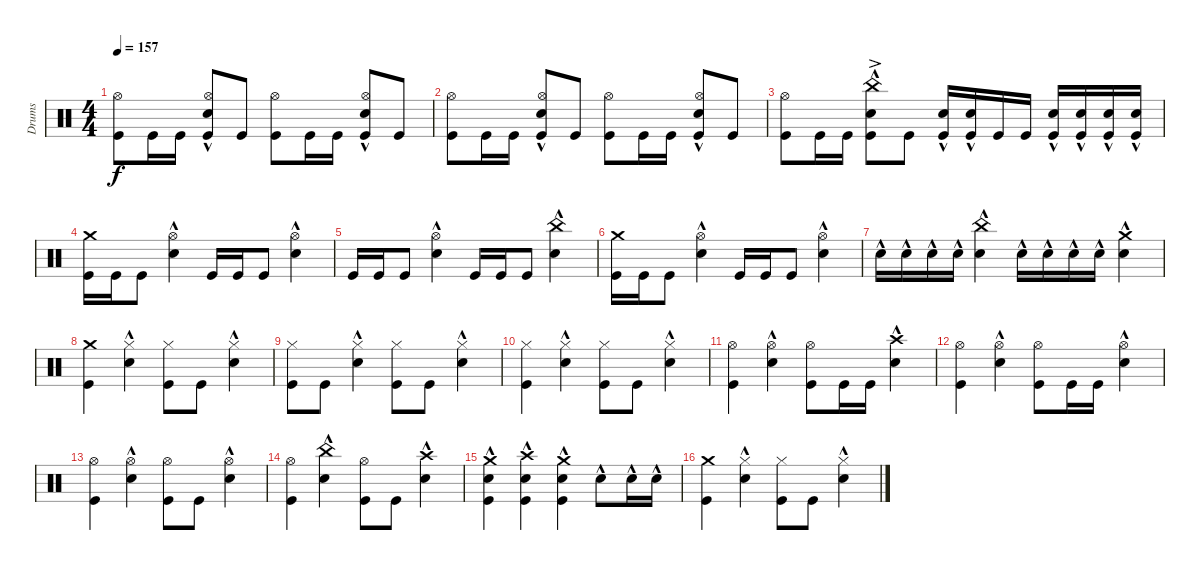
\track ("Drums" "Drums") {solo instrument percussion}
\staff {score}
\articulation defaults
\ts (4 4)
\tempo 157
\clef neutral
\ks c
("Kick (hit)" "Hi-Hat (open)").8{dy f} "Kick (hit)".16 "Kick (hit)".16 ("Snare (hit) 2"{hac} "Hi-Hat (open)" "Kick (hit)").8 "Kick (hit)".8 ("Kick (hit)" "Hi-Hat (open)").8 "Kick (hit)".16 "Kick (hit)".16 ("Snare (hit) 2"{hac} "Hi-Hat (open)" "Kick (hit)").8 "Kick (hit)".8 |
("Kick (hit)" "Hi-Hat (open)").8 "Kick (hit)".16 "Kick (hit)".16 ("Snare (hit) 2"{hac} "Hi-Hat (open)" "Kick (hit)").8 "Kick (hit)".8 ("Kick (hit)" "Hi-Hat (open)").8 "Kick (hit)".16 "Kick (hit)".16 ("Snare (hit) 2"{hac} "Hi-Hat (open)" "Kick (hit)").8 "Kick (hit)".8 |
("Kick (hit)" "Hi-Hat (open)").8 "Kick (hit)".16 "Kick (hit)".16 ("Snare (hit) 2"{hac} "China (hit)"{ac} "Kick (hit)").8 "Kick (hit)".8 ("Snare (hit) 2"{hac} "Kick (hit)").16 ("Snare (hit) 2"{hac} "Kick (hit)").16 "Kick (hit)".16 "Kick (hit)".16 ("Snare (hit) 2"{hac} "Kick (hit)").16 ("Snare (hit) 2"{hac} "Kick (hit)").16 ("Snare (hit) 2"{hac} "Kick (hit)").16 ("Snare (hit) 2"{hac} "Kick (hit)").16 |
("Kick (hit)" "Crash medium (hit)").16 "Kick (hit)".16 "Kick (hit)".8 ("Snare (hit) 2"{hac} "Hi-Hat (open)").4 "Kick (hit)".16 "Kick (hit)".16 "Kick (hit)".8 ("Snare (hit) 2"{hac} "Hi-Hat (open)").4 |
"Kick (hit)".16 "Kick (hit)".16 "Kick (hit)".8 ("Snare (hit) 2"{hac} "Hi-Hat (open)").4 "Kick (hit)".16 "Kick (hit)".16 "Kick (hit)".8 ("Snare (hit) 2"{hac} "China (hit)"{hac}).4 |
("Kick (hit)" "Crash medium (hit)").16 "Kick (hit)".16 "Kick (hit)".8 ("Snare (hit) 2"{hac} "Hi-Hat (open)").4 "Kick (hit)".16 "Kick (hit)".16 "Kick (hit)".8 ("Snare (hit) 2"{hac} "Hi-Hat (open)").4 |
"Snare (hit) 2"{hac}.16 "Snare (hit) 2"{hac}.16 "Snare (hit) 2"{hac}.16 "Snare (hit) 2"{hac}.16 ("Snare (hit) 2"{hac} "China (hit)"{hac}).4 "Snare (hit) 2"{hac}.16 "Snare (hit) 2"{hac}.16 "Snare (hit) 2"{hac}.16 "Snare (hit) 2"{hac}.16 ("Snare (hit) 2"{hac} "Crash medium (hit)").4 |
("Crash medium (hit)" "Kick (hit)").4 ("Snare (hit) 2"{hac} "Hi-Hat (closed)").4 ("Kick (hit)" "Hi-Hat (closed)").8 "Kick (hit)".8 ("Snare (hit) 2"{hac} "Hi-Hat (closed)").4 |
("Kick (hit)" "Hi-Hat (closed)").8 "Kick (hit)".8 ("Snare (hit) 2"{hac} "Hi-Hat (closed)").4 ("Kick (hit)" "Hi-Hat (closed)").8 "Kick (hit)".8 ("Snare (hit) 2"{hac} "Hi-Hat (closed)").4 |
("Kick (hit)" "Hi-Hat (closed)").4 ("Snare (hit) 2"{hac} "Hi-Hat (closed)").4 ("Kick (hit)" "Hi-Hat (closed)").8 "Kick (hit)".8 ("Snare (hit) 2"{hac} "Hi-Hat (closed)").4 |
("Kick (hit)" "Hi-Hat (open)").4 ("Snare (hit) 2"{hac} "Hi-Hat (open)").4 ("Kick (hit)" "Hi-Hat (open)").8 "Kick (hit)".16 "Kick (hit)".16 ("Snare (hit) 2"{hac} "Crash high (hit)"{hac}).4 |
("Kick (hit)" "Hi-Hat (open)").4 ("Snare (hit) 2"{hac} "Hi-Hat (open)").4 ("Kick (hit)" "Hi-Hat (open)").8 "Kick (hit)".16 "Kick (hit)".16 ("Snare (hit) 2"{hac} "Hi-Hat (open)").4 |
("Kick (hit)" "Hi-Hat (open)").4 ("Snare (hit) 2"{hac} "Hi-Hat (open)").4 ("Kick (hit)" "Hi-Hat (open)").8 "Kick (hit)".8 ("Snare (hit) 2"{hac} "Hi-Hat (open)").4 |
("Kick (hit)" "Hi-Hat (open)").4 ("Snare (hit) 2"{hac} "China (hit)"{hac}).4 ("Kick (hit)" "Hi-Hat (open)").8 "Kick (hit)".8 ("Snare (hit) 2"{hac} "Crash high (hit)"{hac}).4 |
("Snare (hit) 2"{hac} "Kick (hit)" "Crash medium (hit)").4 ("Kick (hit)" "Snare (hit) 2"{hac} "Crash high (hit)"{hac}).4 ("Snare (hit) 2"{hac} "Kick (hit)" "Crash medium (hit)").4 "Snare (hit) 2"{hac}.8 "Snare (hit) 2"{hac}.16 "Snare (hit) 2"{hac}.16 |
("Crash medium (hit)" "Kick (hit)").4 ("Snare (hit) 2"{hac} "Hi-Hat (closed)").4 ("Kick (hit)" "Hi-Hat (closed)").8 "Kick (hit)".8 ("Snare (hit) 2"{hac} "Hi-Hat (closed)").4
